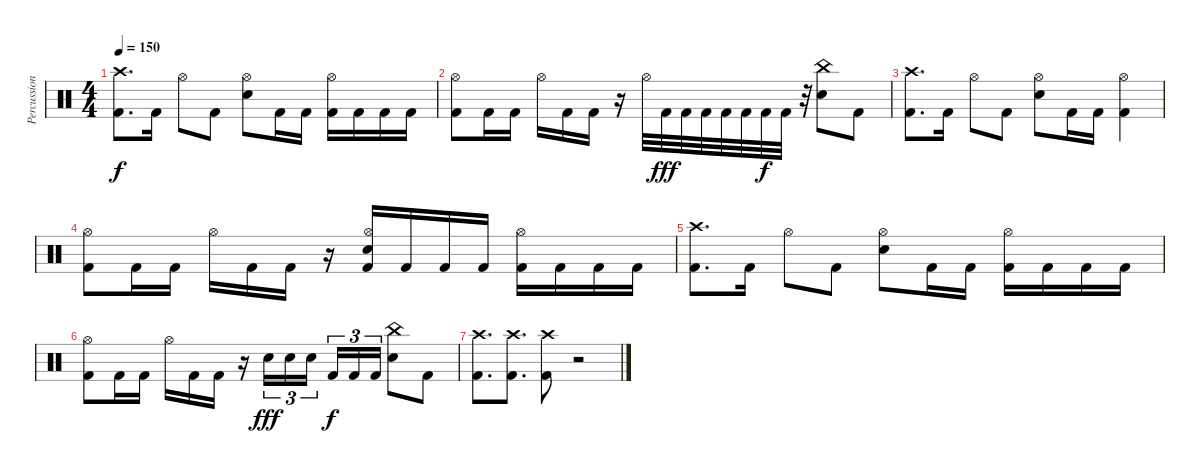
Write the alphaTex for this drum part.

\track ("Percussion" "Percussion") {instrument percussion}
\staff {score}
\articulation defaults
\ts (4 4)
\tempo 150
\clef neutral
\ks c
("Crash high (hit)" "Kick (hit) 2").8{d dy f} "Kick (hit) 2".16 "Hi-Hat (open)".8 "Kick (hit) 2".8 ("Hi-Hat (open)" "Electric Snare (hit)").8 "Kick (hit) 2".16 "Kick (hit) 2".16 ("Hi-Hat (open)" "Kick (hit) 2").16 "Kick (hit) 2".16 "Kick (hit) 2".16 "Kick (hit) 2".16 |
("Hi-Hat (open)" "Kick (hit) 2").8 "Kick (hit) 2".16 "Kick (hit) 2".16 "Hi-Hat (open)".16 "Kick (hit) 2".16 "Kick (hit) 2".16 r.16 "Hi-Hat (open)".32 "Kick (hit) 2".32{dy fff} "Kick (hit) 2".32 "Kick (hit) 2".32 "Kick (hit) 2".32 "Kick (hit) 2".32 "Kick (hit) 2".32{dy f} "Kick (hit) 2".32 r.32 ("China (hit)" "Electric Snare (hit)").8 "Kick (hit) 2".8 |
("Crash high (hit)" "Kick (hit) 2").8{d} "Kick (hit) 2".16 "Hi-Hat (open)".8 "Kick (hit) 2".8 ("Hi-Hat (open)" "Electric Snare (hit)").8 "Kick (hit) 2".16 "Kick (hit) 2".16 ("Hi-Hat (open)" "Kick (hit) 2").4 |
("Hi-Hat (open)" "Kick (hit) 2").8 "Kick (hit) 2".16 "Kick (hit) 2".16 "Hi-Hat (open)".16 "Kick (hit) 2".16 "Kick (hit) 2".16 r.16 ("Hi-Hat (open)" "Electric Snare (hit)" "Kick (hit) 2").16 "Kick (hit) 2".16 "Kick (hit) 2".16 "Kick (hit) 2".16 ("Hi-Hat (open)" "Kick (hit) 2").16 "Kick (hit) 2".16 "Kick (hit) 2".16 "Kick (hit) 2".16 |
("Crash high (hit)" "Kick (hit) 2").8{d} "Kick (hit) 2".16 "Hi-Hat (open)".8 "Kick (hit) 2".8 ("Hi-Hat (open)" "Electric Snare (hit)").8 "Kick (hit) 2".16 "Kick (hit) 2".16 ("Hi-Hat (open)" "Kick (hit) 2").16 "Kick (hit) 2".16 "Kick (hit) 2".16 "Kick (hit) 2".16 |
("Hi-Hat (open)" "Kick (hit) 2").8 "Kick (hit) 2".16 "Kick (hit) 2".16 "Hi-Hat (open)".16 "Kick (hit) 2".16 "Kick (hit) 2".16 r.16 "Electric Snare (hit)".16{tu (3 2) dy fff} "Electric Snare (hit)".16{tu (3 2)} "Electric Snare (hit)".16{tu (3 2) beam splitsecondary} "Kick (hit) 2".16{tu (3 2) dy f} "Kick (hit) 2".16{tu (3 2)} "Kick (hit) 2".16{tu (3 2)} ("China (hit)" "Electric Snare (hit)").8 "Kick (hit) 2".8 |
("Crash high (hit)" "Kick (hit) 2").8{d} ("Crash high (hit)" "Kick (hit) 2").8{d} ("Crash high (hit)" "Kick (hit) 2").8 r.2
